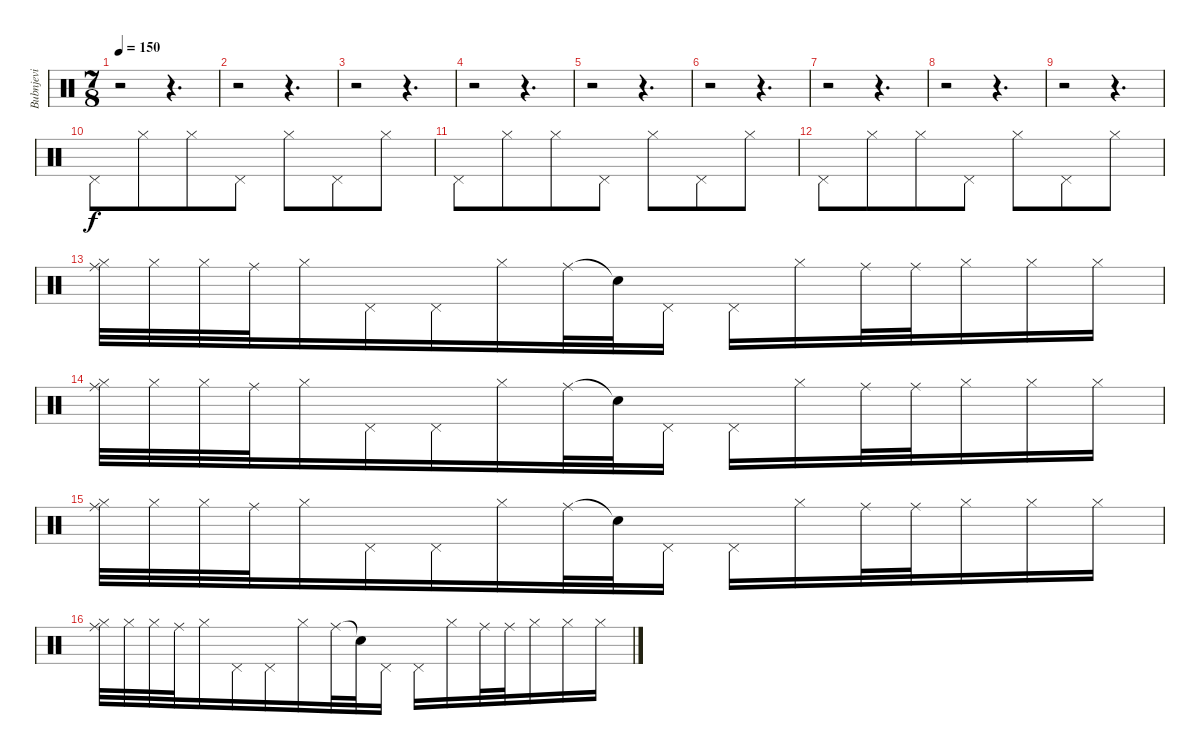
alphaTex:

\track ("Bubnjevi" "Bubnjevi") {instrument percussion}
\staff {score}
\articulation defaults
\ts (7 8)
\tempo 150
\clef neutral
\ks c
r.2{dy f} r.4{d} |
r.2 r.4{d} |
r.2 r.4{d} |
r.2 r.4{d} |
r.2 r.4{d} |
r.2 r.4{d} |
r.2 r.4{d} |
r.2 r.4{d} |
r.2 r.4{d} |
"Pedal Hi-Hat (hit)".8 "Hi-Hat (closed)".8 "Hi-Hat (closed)".8 "Pedal Hi-Hat (hit)".8 "Hi-Hat (closed)".8 "Pedal Hi-Hat (hit)".8 "Hi-Hat (closed)".8 |
"Pedal Hi-Hat (hit)".8 "Hi-Hat (closed)".8 "Hi-Hat (closed)".8 "Pedal Hi-Hat (hit)".8 "Hi-Hat (closed)".8 "Pedal Hi-Hat (hit)".8 "Hi-Hat (closed)".8 |
"Pedal Hi-Hat (hit)".8 "Hi-Hat (closed)".8 "Hi-Hat (closed)".8 "Pedal Hi-Hat (hit)".8 "Hi-Hat (closed)".8 "Pedal Hi-Hat (hit)".8 "Hi-Hat (closed)".8 |
("Hi-Hat (closed)" "Ride (middle)").32 "Hi-Hat (closed)".32 "Hi-Hat (closed)".32 "Ride (middle)".32 "Hi-Hat (closed)".16 "Pedal Hi-Hat (hit)".16 "Pedal Hi-Hat (hit)".16 "Hi-Hat (closed)".16 "Ride (middle)".32 "Snare (hit)"{t}.32 "Pedal Hi-Hat (hit)".16 "Pedal Hi-Hat (hit)".16 "Hi-Hat (closed)".16 "Ride (middle)".32 "Ride (middle)".32 "Hi-Hat (closed)".16 "Hi-Hat (closed)".16 "Hi-Hat (closed)".16 |
("Hi-Hat (closed)" "Ride (middle)").32 "Hi-Hat (closed)".32 "Hi-Hat (closed)".32 "Ride (middle)".32 "Hi-Hat (closed)".16 "Pedal Hi-Hat (hit)".16 "Pedal Hi-Hat (hit)".16 "Hi-Hat (closed)".16 "Ride (middle)".32 "Snare (hit)"{t}.32 "Pedal Hi-Hat (hit)".16 "Pedal Hi-Hat (hit)".16 "Hi-Hat (closed)".16 "Ride (middle)".32 "Ride (middle)".32 "Hi-Hat (closed)".16 "Hi-Hat (closed)".16 "Hi-Hat (closed)".16 |
("Hi-Hat (closed)" "Ride (middle)").32 "Hi-Hat (closed)".32 "Hi-Hat (closed)".32 "Ride (middle)".32 "Hi-Hat (closed)".16 "Pedal Hi-Hat (hit)".16 "Pedal Hi-Hat (hit)".16 "Hi-Hat (closed)".16 "Ride (middle)".32 "Snare (hit)"{t}.32 "Pedal Hi-Hat (hit)".16 "Pedal Hi-Hat (hit)".16 "Hi-Hat (closed)".16 "Ride (middle)".32 "Ride (middle)".32 "Hi-Hat (closed)".16 "Hi-Hat (closed)".16 "Hi-Hat (closed)".16 |
("Hi-Hat (closed)" "Ride (middle)").32 "Hi-Hat (closed)".32 "Hi-Hat (closed)".32 "Ride (middle)".32 "Hi-Hat (closed)".16 "Pedal Hi-Hat (hit)".16 "Pedal Hi-Hat (hit)".16 "Hi-Hat (closed)".16 "Ride (middle)".32 "Snare (hit)"{t}.32 "Pedal Hi-Hat (hit)".16 "Pedal Hi-Hat (hit)".16 "Hi-Hat (closed)".16 "Ride (middle)".32 "Ride (middle)".32 "Hi-Hat (closed)".16 "Hi-Hat (closed)".16 "Hi-Hat (closed)".16
